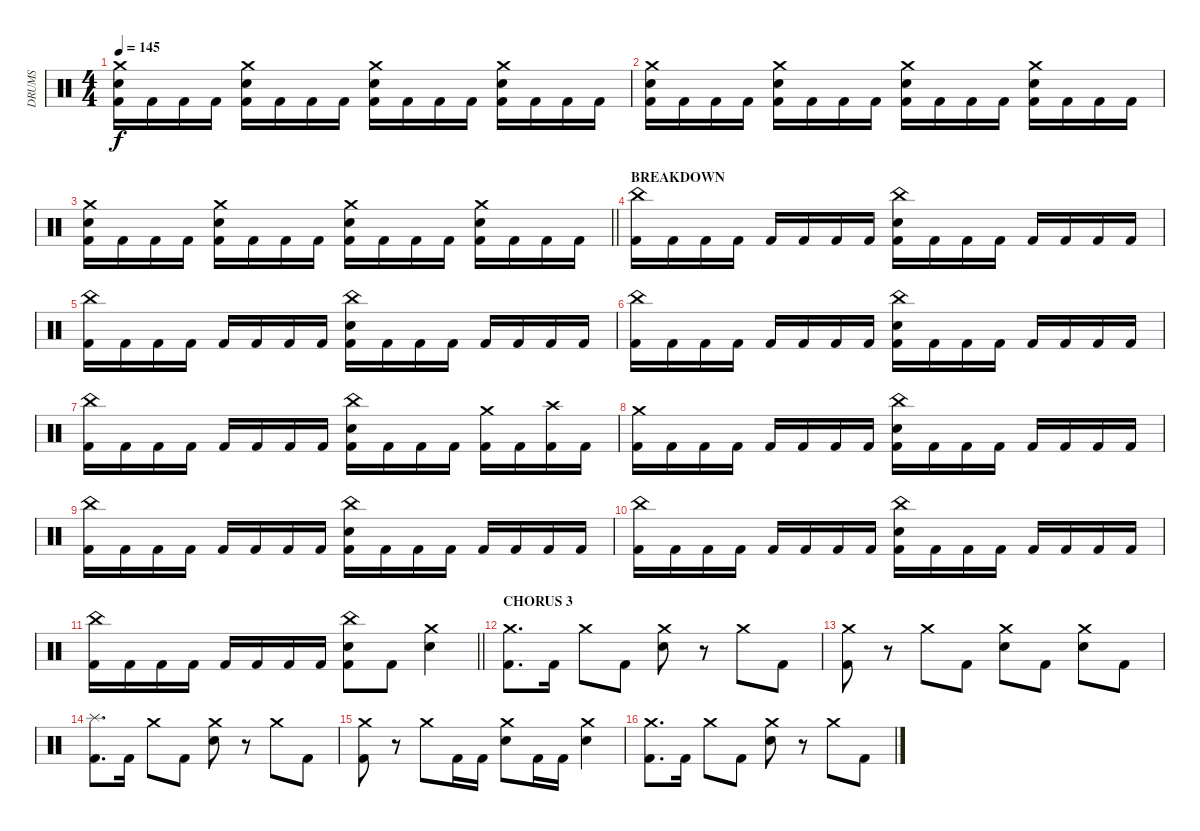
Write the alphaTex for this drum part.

\track ("DRUMS" "DRUMS") {instrument percussion}
\staff {score}
\articulation defaults
\ts (4 4)
\tempo 145
\clef neutral
\ks c
("Crash medium (hit)" "Electric Snare (hit)" "Kick (hit) 2").16{dy f} "Kick (hit) 2".16 "Kick (hit) 2".16 "Kick (hit) 2".16 ("Crash medium (hit)" "Electric Snare (hit)" "Kick (hit) 2").16 "Kick (hit) 2".16 "Kick (hit) 2".16 "Kick (hit) 2".16 ("Crash medium (hit)" "Electric Snare (hit)" "Kick (hit) 2").16 "Kick (hit) 2".16 "Kick (hit) 2".16 "Kick (hit) 2".16 ("Crash medium (hit)" "Electric Snare (hit)" "Kick (hit) 2").16 "Kick (hit) 2".16 "Kick (hit) 2".16 "Kick (hit) 2".16 |
("Crash medium (hit)" "Electric Snare (hit)" "Kick (hit) 2").16 "Kick (hit) 2".16 "Kick (hit) 2".16 "Kick (hit) 2".16 ("Crash medium (hit)" "Electric Snare (hit)" "Kick (hit) 2").16 "Kick (hit) 2".16 "Kick (hit) 2".16 "Kick (hit) 2".16 ("Crash medium (hit)" "Electric Snare (hit)" "Kick (hit) 2").16 "Kick (hit) 2".16 "Kick (hit) 2".16 "Kick (hit) 2".16 ("Crash medium (hit)" "Electric Snare (hit)" "Kick (hit) 2").16 "Kick (hit) 2".16 "Kick (hit) 2".16 "Kick (hit) 2".16 |
\barLineRight lightlight
("Crash medium (hit)" "Electric Snare (hit)" "Kick (hit) 2").16 "Kick (hit) 2".16 "Kick (hit) 2".16 "Kick (hit) 2".16 ("Crash medium (hit)" "Electric Snare (hit)" "Kick (hit) 2").16 "Kick (hit) 2".16 "Kick (hit) 2".16 "Kick (hit) 2".16 ("Crash medium (hit)" "Electric Snare (hit)" "Kick (hit) 2").16 "Kick (hit) 2".16 "Kick (hit) 2".16 "Kick (hit) 2".16 ("Crash medium (hit)" "Electric Snare (hit)" "Kick (hit) 2").16 "Kick (hit) 2".16 "Kick (hit) 2".16 "Kick (hit) 2".16 |
\section ("" "BREAKDOWN")
("China (hit)" "Kick (hit) 2").16 "Kick (hit) 2".16 "Kick (hit) 2".16 "Kick (hit) 2".16 "Kick (hit) 2".16 "Kick (hit) 2".16 "Kick (hit) 2".16 "Kick (hit) 2".16 ("China (hit)" "Electric Snare (hit)" "Kick (hit) 2").16 "Kick (hit) 2".16 "Kick (hit) 2".16 "Kick (hit) 2".16 "Kick (hit) 2".16 "Kick (hit) 2".16 "Kick (hit) 2".16 "Kick (hit) 2".16 |
("China (hit)" "Kick (hit) 2").16 "Kick (hit) 2".16 "Kick (hit) 2".16 "Kick (hit) 2".16 "Kick (hit) 2".16 "Kick (hit) 2".16 "Kick (hit) 2".16 "Kick (hit) 2".16 ("China (hit)" "Electric Snare (hit)" "Kick (hit) 2").16 "Kick (hit) 2".16 "Kick (hit) 2".16 "Kick (hit) 2".16 "Kick (hit) 2".16 "Kick (hit) 2".16 "Kick (hit) 2".16 "Kick (hit) 2".16 |
("China (hit)" "Kick (hit) 2").16 "Kick (hit) 2".16 "Kick (hit) 2".16 "Kick (hit) 2".16 "Kick (hit) 2".16 "Kick (hit) 2".16 "Kick (hit) 2".16 "Kick (hit) 2".16 ("China (hit)" "Electric Snare (hit)" "Kick (hit) 2").16 "Kick (hit) 2".16 "Kick (hit) 2".16 "Kick (hit) 2".16 "Kick (hit) 2".16 "Kick (hit) 2".16 "Kick (hit) 2".16 "Kick (hit) 2".16 |
("China (hit)" "Kick (hit) 2").16 "Kick (hit) 2".16 "Kick (hit) 2".16 "Kick (hit) 2".16 "Kick (hit) 2".16 "Kick (hit) 2".16 "Kick (hit) 2".16 "Kick (hit) 2".16 ("China (hit)" "Electric Snare (hit)" "Kick (hit) 2").16 "Kick (hit) 2".16 "Kick (hit) 2".16 "Kick (hit) 2".16 ("Crash medium (hit)" "Kick (hit) 2").16 "Kick (hit) 2".16 ("Crash high (hit)" "Kick (hit) 2").16 "Kick (hit) 2".16 |
("Crash medium (hit)" "Kick (hit) 2").16 "Kick (hit) 2".16 "Kick (hit) 2".16 "Kick (hit) 2".16 "Kick (hit) 2".16 "Kick (hit) 2".16 "Kick (hit) 2".16 "Kick (hit) 2".16 ("China (hit)" "Electric Snare (hit)" "Kick (hit) 2").16 "Kick (hit) 2".16 "Kick (hit) 2".16 "Kick (hit) 2".16 "Kick (hit) 2".16 "Kick (hit) 2".16 "Kick (hit) 2".16 "Kick (hit) 2".16 |
("China (hit)" "Kick (hit) 2").16 "Kick (hit) 2".16 "Kick (hit) 2".16 "Kick (hit) 2".16 "Kick (hit) 2".16 "Kick (hit) 2".16 "Kick (hit) 2".16 "Kick (hit) 2".16 ("China (hit)" "Electric Snare (hit)" "Kick (hit) 2").16 "Kick (hit) 2".16 "Kick (hit) 2".16 "Kick (hit) 2".16 "Kick (hit) 2".16 "Kick (hit) 2".16 "Kick (hit) 2".16 "Kick (hit) 2".16 |
("China (hit)" "Kick (hit) 2").16 "Kick (hit) 2".16 "Kick (hit) 2".16 "Kick (hit) 2".16 "Kick (hit) 2".16 "Kick (hit) 2".16 "Kick (hit) 2".16 "Kick (hit) 2".16 ("China (hit)" "Electric Snare (hit)" "Kick (hit) 2").16 "Kick (hit) 2".16 "Kick (hit) 2".16 "Kick (hit) 2".16 "Kick (hit) 2".16 "Kick (hit) 2".16 "Kick (hit) 2".16 "Kick (hit) 2".16 |
\barLineRight lightlight
("China (hit)" "Kick (hit) 2").16 "Kick (hit) 2".16 "Kick (hit) 2".16 "Kick (hit) 2".16 "Kick (hit) 2".16 "Kick (hit) 2".16 "Kick (hit) 2".16 "Kick (hit) 2".16 ("China (hit)" "Electric Snare (hit)" "Kick (hit) 2").8 "Kick (hit) 2".8 ("Crash medium (hit)" "Electric Snare (hit)").4 |
\section ("" "CHORUS 3")
("Crash medium (hit)" "Kick (hit) 2").8{d} "Kick (hit) 2".16 "Crash medium (hit)".8 "Kick (hit) 2".8 ("Crash medium (hit)" "Electric Snare (hit)").8 r.8 "Crash medium (hit)".8 "Kick (hit) 2".8 |
("Crash medium (hit)" "Kick (hit) 2").8 r.8 "Crash medium (hit)".8 "Kick (hit) 2".8 ("Crash medium (hit)" "Electric Snare (hit)").8 "Kick (hit) 2".8 ("Crash medium (hit)" "Electric Snare (hit)").8 "Kick (hit) 2".8 |
("Splash (hit)" "Kick (hit) 2").8{d} "Kick (hit) 2".16 "Crash medium (hit)".8 "Kick (hit) 2".8 ("Crash medium (hit)" "Electric Snare (hit)").8 r.8 "Crash medium (hit)".8 "Kick (hit) 2".8 |
("Crash medium (hit)" "Kick (hit) 2").8 r.8 "Crash medium (hit)".8 "Kick (hit) 2".16 "Kick (hit) 2".16 ("Crash medium (hit)" "Electric Snare (hit)").8 "Kick (hit) 2".16 "Kick (hit) 2".16 ("Crash medium (hit)" "Electric Snare (hit)").4 |
("Crash medium (hit)" "Kick (hit) 2").8{d} "Kick (hit) 2".16 "Crash medium (hit)".8 "Kick (hit) 2".8 ("Crash medium (hit)" "Electric Snare (hit)").8 r.8 "Crash medium (hit)".8 "Kick (hit) 2".8
